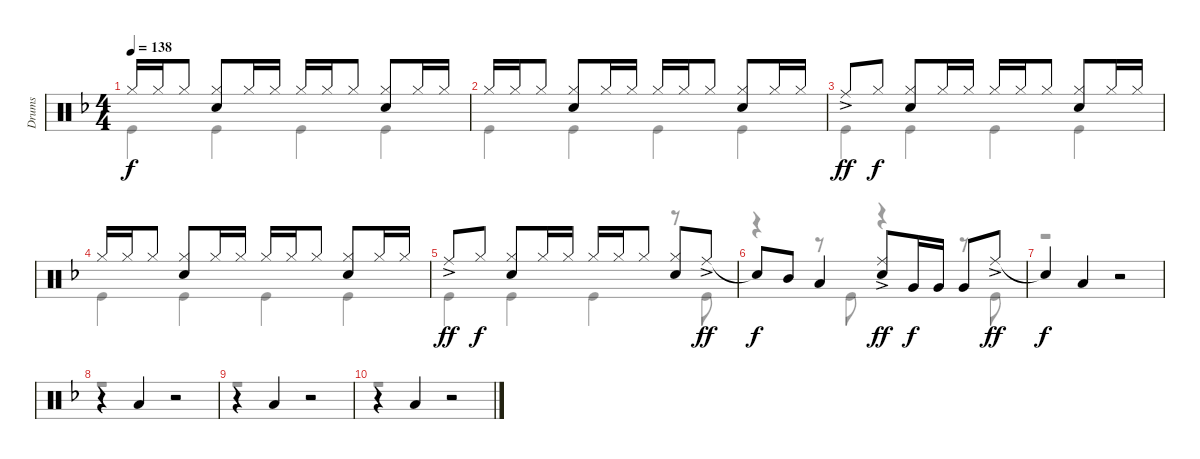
\track ("Drums" "Drums") {instrument percussion}
\staff {score}
\articulation defaults
\voice
\ts (4 4)
\tempo 138
\clef neutral
\ks f "Hi-Hat (closed)".16{dy f} "Hi-Hat (closed)".16 "Hi-Hat (closed)".8
("Hi-Hat (closed)" "Snare (hit) 2").8 "Hi-Hat (closed)".16 "Hi-Hat (closed)".16 "Hi-Hat (closed)".16 "Hi-Hat (closed)".16 "Hi-Hat (closed)".8 ("Hi-Hat (closed)" "Snare (hit) 2").8 "Hi-Hat (closed)".16 "Hi-Hat (closed)".16 |
"Hi-Hat (closed)".16 "Hi-Hat (closed)".16 "Hi-Hat (closed)".8 ("Hi-Hat (closed)" "Snare (hit) 2").8 "Hi-Hat (closed)".16 "Hi-Hat (closed)".16 "Hi-Hat (closed)".16 "Hi-Hat (closed)".16 "Hi-Hat (closed)".8 ("Hi-Hat (closed)" "Snare (hit) 2").8 "Hi-Hat (closed)".16 "Hi-Hat (closed)".16 |
"Ride (middle)"{ac}.8{dy ff} "Hi-Hat (closed)".8{dy f} ("Hi-Hat (closed)" "Snare (hit) 2").8 "Hi-Hat (closed)".16 "Hi-Hat (closed)".16 "Hi-Hat (closed)".16 "Hi-Hat (closed)".16 "Hi-Hat (closed)".8 ("Hi-Hat (closed)" "Snare (hit) 2").8 "Hi-Hat (closed)".16 "Hi-Hat (closed)".16 |
"Hi-Hat (closed)".16 "Hi-Hat (closed)".16 "Hi-Hat (closed)".8 ("Hi-Hat (closed)" "Snare (hit) 2").8 "Hi-Hat (closed)".16 "Hi-Hat (closed)".16 "Hi-Hat (closed)".16 "Hi-Hat (closed)".16 "Hi-Hat (closed)".8 ("Hi-Hat (closed)" "Snare (hit) 2").8 "Hi-Hat (closed)".16 "Hi-Hat (closed)".16 |
"Ride (middle)"{ac}.8{dy ff} "Hi-Hat (closed)".8{dy f} ("Hi-Hat (closed)" "Snare (hit) 2").8 "Hi-Hat (closed)".16 "Hi-Hat (closed)".16 "Hi-Hat (closed)".16 "Hi-Hat (closed)".16 "Hi-Hat (closed)".8 ("Hi-Hat (closed)" "Snare (hit) 2").8 "Ride (middle)"{ac}.8{dy ff} |
"Snare (hit)"{t}.8{dy f} "Mid Tom (hit)".8 "Low Tom (hit)".4 ("Ride (middle)"{ac} "Snare (hit) 2").8{dy ff} "Very Low Tom (hit)".16{dy f} "Very Low Tom (hit)".16 "Very Low Tom (hit)".8 "Ride (middle)"{ac}.8{dy ff} |
"Snare (hit)"{t}.4{dy f} "Low Tom (hit)".4 r.2 |
r.4 "Low Tom (hit)".4 r.2 |
r.4 "Low Tom (hit)".4 r.2 |
r.4 "Low Tom (hit)".4 r.2
\voice
\clef neutral
\ottava regular
\simile none
\ks f "Kick (hit)".4{dy f} "Kick (hit)".4 "Kick (hit)".4 "Kick (hit)".4
|
"Kick (hit)".4 "Kick (hit)".4 "Kick (hit)".4 "Kick (hit)".4 |
"Kick (hit)".4 "Kick (hit)".4 "Kick (hit)".4 "Kick (hit)".4 |
"Kick (hit)".4 "Kick (hit)".4 "Kick (hit)".4 "Kick (hit)".4 |
"Kick (hit)".4 "Kick (hit)".4 "Kick (hit)".4 r.8 "Kick (hit)".8 |
r.4 r.8 "Kick (hit)".8 r.4 r.8 "Kick (hit)".8 |
r.1 |
r.1 |
r.1 |
r.1
